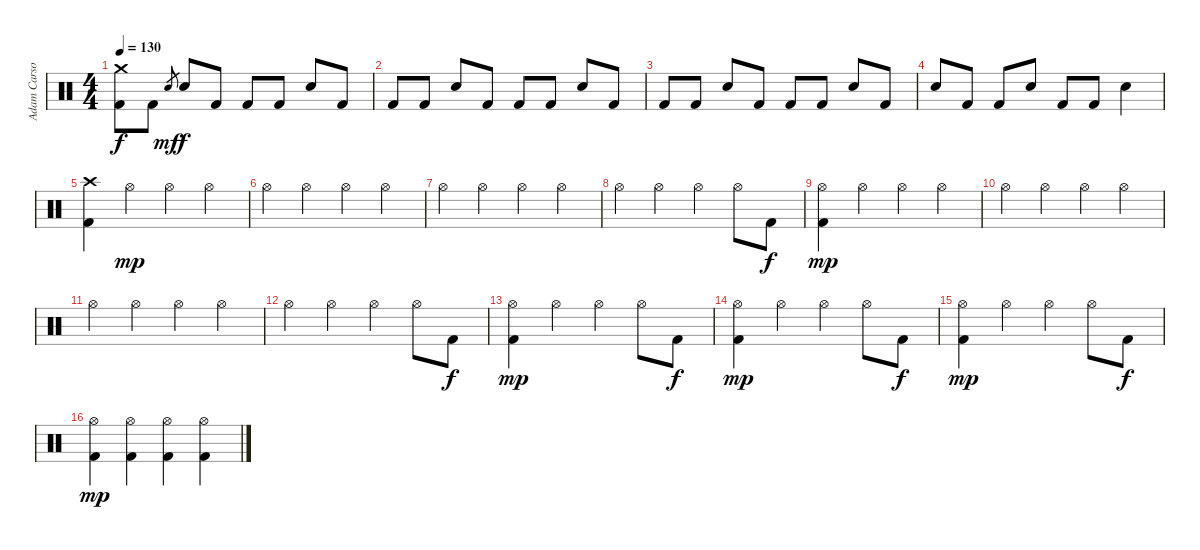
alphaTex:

\track ("Adam Carson" "Adam Carso") {instrument percussion}
\staff {score}
\articulation defaults
\ts (4 4)
\tempo 130
\clef neutral
\ks c
("Crash medium (hit)" "Kick (hit) 2").8{dy f} "Kick (hit) 2".8 "Electric Snare (hit)".8{gr dy mf} "Electric Snare (hit)".8{dy f} "Kick (hit) 2".8 "Kick (hit) 2".8 "Kick (hit) 2".8 "Electric Snare (hit)".8 "Kick (hit) 2".8 |
"Kick (hit) 2".8 "Kick (hit) 2".8 "Electric Snare (hit)".8 "Kick (hit) 2".8 "Kick (hit) 2".8 "Kick (hit) 2".8 "Electric Snare (hit)".8 "Kick (hit) 2".8 |
"Kick (hit) 2".8 "Kick (hit) 2".8 "Electric Snare (hit)".8 "Kick (hit) 2".8 "Kick (hit) 2".8 "Kick (hit) 2".8 "Electric Snare (hit)".8 "Kick (hit) 2".8 |
"Electric Snare (hit)".8 "Kick (hit) 2".8 "Kick (hit) 2".8 "Electric Snare (hit)".8 "Kick (hit) 2".8 "Kick (hit) 2".8 "Electric Snare (hit)".4 |
("Crash high (hit)" "Kick (hit) 2").4 "Hi-Hat (open)".4{dy mp} "Hi-Hat (open)".4 "Hi-Hat (open)".4 |
"Hi-Hat (open)".4 "Hi-Hat (open)".4 "Hi-Hat (open)".4 "Hi-Hat (open)".4 |
"Hi-Hat (open)".4 "Hi-Hat (open)".4 "Hi-Hat (open)".4 "Hi-Hat (open)".4 |
"Hi-Hat (open)".4 "Hi-Hat (open)".4 "Hi-Hat (open)".4 "Hi-Hat (open)".8 "Kick (hit) 2".8{dy f} |
("Hi-Hat (open)" "Kick (hit) 2").4{dy mp} "Hi-Hat (open)".4 "Hi-Hat (open)".4 "Hi-Hat (open)".4 |
"Hi-Hat (open)".4 "Hi-Hat (open)".4 "Hi-Hat (open)".4 "Hi-Hat (open)".4 |
"Hi-Hat (open)".4 "Hi-Hat (open)".4 "Hi-Hat (open)".4 "Hi-Hat (open)".4 |
"Hi-Hat (open)".4 "Hi-Hat (open)".4 "Hi-Hat (open)".4 "Hi-Hat (open)".8 "Kick (hit) 2".8{dy f} |
("Hi-Hat (open)" "Kick (hit) 2").4{dy mp} "Hi-Hat (open)".4 "Hi-Hat (open)".4 "Hi-Hat (open)".8 "Kick (hit) 2".8{dy f} |
("Hi-Hat (open)" "Kick (hit) 2").4{dy mp} "Hi-Hat (open)".4 "Hi-Hat (open)".4 "Hi-Hat (open)".8 "Kick (hit) 2".8{dy f} |
("Hi-Hat (open)" "Kick (hit) 2").4{dy mp} "Hi-Hat (open)".4 "Hi-Hat (open)".4 "Hi-Hat (open)".8 "Kick (hit) 2".8{dy f} |
("Hi-Hat (open)" "Kick (hit) 2").4{dy mp} ("Hi-Hat (open)" "Kick (hit) 2").4 ("Hi-Hat (open)" "Kick (hit) 2").4 ("Hi-Hat (open)" "Kick (hit) 2").4
